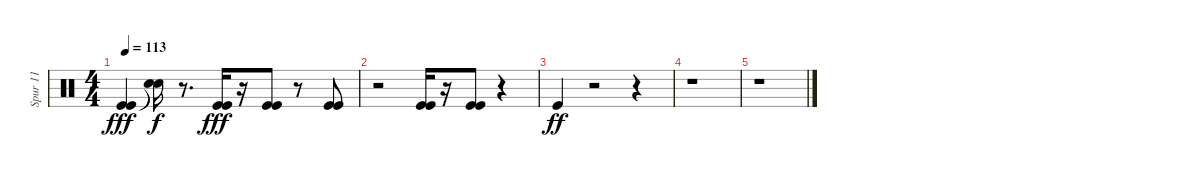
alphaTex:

\track ("Spur 11" "Spur 11") {instrument percussion}
\staff {score}
\articulation defaults
\ts (4 4)
\tempo 113
\clef neutral
\ks c
("Kick (hit)" "Kick (hit)").4{dy fff} ("Snare (hit)"{t} "Snare (hit)"{t}).16{dy f} r.8{d} ("Kick (hit)" "Kick (hit)").16{dy fff balance 8} r.16 ("Kick (hit)" "Kick (hit)").8 r.8 ("Kick (hit)" "Kick (hit)").8 |
r.2 ("Kick (hit)" "Kick (hit)").16 r.16 ("Kick (hit)" "Kick (hit)").8 r.4 |
"Kick (hit)".4{dy ff volume 13} r.2 r.4 |
r.1 |
r.1
